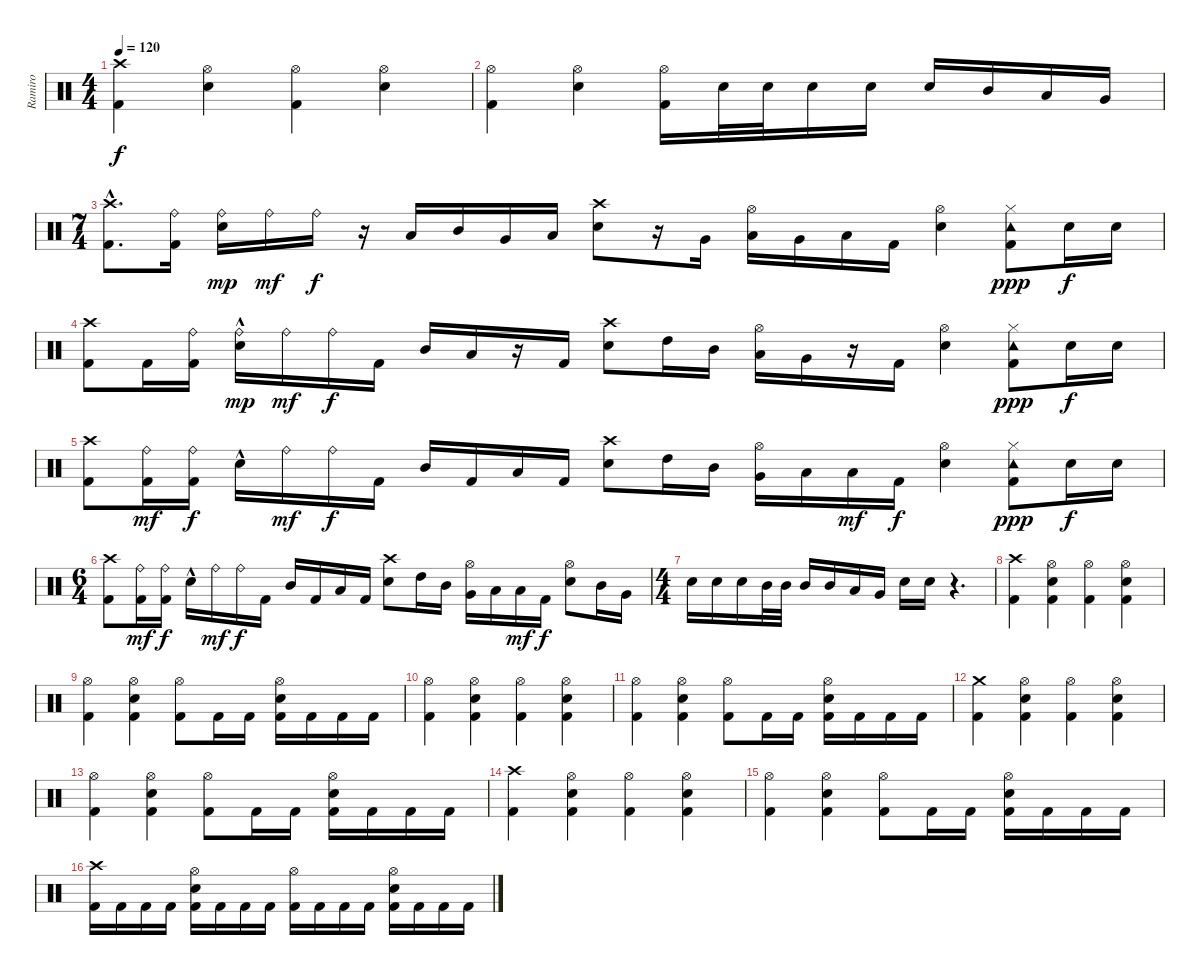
\track ("Ramiro" "Ramiro") {instrument percussion}
\staff {score}
\articulation defaults
\ts (4 4)
\tempo 120
\clef neutral
\ks c
("Kick (hit) 2" "Crash high (hit)").4{dy f} ("Electric Snare (hit)" "Hi-Hat (open)").4 ("Kick (hit) 2" "Hi-Hat (open)").4 ("Electric Snare (hit)" "Hi-Hat (open)").4 |
("Kick (hit) 2" "Hi-Hat (open)").4 ("Electric Snare (hit)" "Hi-Hat (open)").4 ("Kick (hit) 2" "Hi-Hat (open)").16 "Electric Snare (hit)".32 "Electric Snare (hit)".32 "Electric Snare (hit)".16 "Electric Snare (hit)".16 "Electric Snare (hit)".16 "Mid Tom (hit)".16 "Low Tom (hit)".16 "Very Low Tom (hit)".16 |
\ts (7 4)
("Crash high (hit)" "Kick (hit) 2"{hac}).8{d} ("Kick (hit) 2" "Ride (bell)").16 ("Electric Snare (hit)" "Ride (bell)").16{dy mp} "Ride (bell)".16{dy mf} "Ride (bell)".16{dy f} r.16 "Low Tom (hit)".16 "Mid Tom (hit)".16 "Very Low Tom (hit)".16 "Low Floor Tom (hit)".16 ("Crash high (hit)" "Electric Snare (hit)").8 r.16 "Very Low Tom (hit)".16 ("Low Tom (hit)" "Hi-Hat (open)").16 "Very Low Tom (hit)".16 "Low Floor Tom (hit)".16 "Kick (hit) 2".16 ("Electric Snare (hit)" "Hi-Hat (open)").4 ("Tambourine (hit)" "Kick (hit) 2" "Hi-Hat (closed)").8{dy ppp} "Electric Snare (hit)".16{dy f} "Electric Snare (hit)".16 |
("Crash high (hit)" "Kick (hit) 2").8 "Kick (hit) 2".16 ("Kick (hit) 2" "Ride (bell)").16 ("Ride (bell)" "Electric Snare (hit)"{hac}).16{dy mp} "Ride (bell)".16{dy mf} "Ride (bell)".16{dy f} "Kick (hit) 2".16 "Mid Tom (hit)".16 "Low Tom (hit)".16 r.16 "Kick (hit) 2".16 ("Crash high (hit)" "Electric Snare (hit)").8 "High Tom (hit)".16 "Mid Tom (hit)".16 ("Low Tom (hit)" "Hi-Hat (open)").16 "Very Low Tom (hit)".16 r.16 "Kick (hit) 2".16 ("Electric Snare (hit)" "Hi-Hat (open)").4 ("Tambourine (hit)" "Kick (hit) 2" "Hi-Hat (closed)").8{dy ppp} "Electric Snare (hit)".16{dy f} "Electric Snare (hit)".16 |
("Kick (hit) 2" "Crash high (hit)").8 ("Kick (hit) 2" "Ride (bell)").16{dy mf} ("Kick (hit) 2" "Ride (bell)").16{dy f} "Electric Snare (hit)"{hac}.16 "Ride (bell)".16{dy mf} "Ride (bell)".16{dy f} "Kick (hit) 2".16 "Mid Tom (hit)".16 "Kick (hit) 2".16 "Low Tom (hit)".16 "Kick (hit) 2".16 ("Crash high (hit)" "Electric Snare (hit)").8 "High Tom (hit)".16 "Mid Tom (hit)".16 ("Hi-Hat (open)" "Very Low Tom (hit)").16 "Low Floor Tom (hit)".16 "Low Floor Tom (hit)".16{dy mf} "Kick (hit) 2".16{dy f} ("Electric Snare (hit)" "Hi-Hat (open)").4 ("Tambourine (hit)" "Kick (hit) 2" "Hi-Hat (closed)").8{dy ppp} "Electric Snare (hit)".16{dy f} "Electric Snare (hit)".16 |
\ts (6 4)
("Crash high (hit)" "Kick (hit) 2").8 ("Kick (hit) 2" "Ride (bell)").16{dy mf} ("Kick (hit) 2" "Ride (bell)").16{dy f} "Electric Snare (hit)"{hac}.16 "Ride (bell)".16{dy mf} "Ride (bell)".16{dy f} "Kick (hit) 2".16 "Mid Tom (hit)".16 "Kick (hit) 2".16 "Low Tom (hit)".16 "Kick (hit) 2".16 ("Crash high (hit)" "Electric Snare (hit)").8 "High Tom (hit)".16 "Mid Tom (hit)".16 ("Hi-Hat (open)" "Very Low Tom (hit)").16 "Low Floor Tom (hit)".16 "Low Floor Tom (hit)".16{dy mf} "Kick (hit) 2".16{dy f} ("Electric Snare (hit)" "Hi-Hat (open)").8 "Mid Tom (hit)".16 "Very Low Tom (hit)".16 |
\ts (4 4)
"Electric Snare (hit)".16 "Electric Snare (hit)".16 "Electric Snare (hit)".16 "Mid Tom (hit)".32 "Mid Tom (hit)".32 "Mid Tom (hit)".16 "Mid Tom (hit)".16 "Low Tom (hit)".16 "Very Low Tom (hit)".16 "Electric Snare (hit)".16 "Electric Snare (hit)".16 r.4{d} |
("Kick (hit) 2" "Crash high (hit)").4 ("Hi-Hat (open)" "Electric Snare (hit)" "Kick (hit) 2").4 ("Hi-Hat (open)" "Kick (hit) 2").4 ("Hi-Hat (open)" "Electric Snare (hit)" "Kick (hit) 2").4 |
("Hi-Hat (open)" "Kick (hit) 2").4 ("Hi-Hat (open)" "Electric Snare (hit)" "Kick (hit) 2").4 ("Hi-Hat (open)" "Kick (hit) 2").8 "Kick (hit) 2".16 "Kick (hit) 2".16 ("Hi-Hat (open)" "Kick (hit) 2" "Electric Snare (hit)").16 "Kick (hit) 2".16 "Kick (hit) 2".16 "Kick (hit) 2".16 |
("Kick (hit) 2" "Hi-Hat (open)").4 ("Hi-Hat (open)" "Electric Snare (hit)" "Kick (hit) 2").4 ("Hi-Hat (open)" "Kick (hit) 2").4 ("Hi-Hat (open)" "Electric Snare (hit)" "Kick (hit) 2").4 |
("Hi-Hat (open)" "Kick (hit) 2").4 ("Hi-Hat (open)" "Electric Snare (hit)" "Kick (hit) 2").4 ("Hi-Hat (open)" "Kick (hit) 2").8 "Kick (hit) 2".16 "Kick (hit) 2".16 ("Hi-Hat (open)" "Kick (hit) 2" "Electric Snare (hit)").16 "Kick (hit) 2".16 "Kick (hit) 2".16 "Kick (hit) 2".16 |
("Kick (hit) 2" "Crash medium (hit)").4 ("Hi-Hat (open)" "Electric Snare (hit)" "Kick (hit) 2").4 ("Hi-Hat (open)" "Kick (hit) 2").4 ("Hi-Hat (open)" "Electric Snare (hit)" "Kick (hit) 2").4 |
("Hi-Hat (open)" "Kick (hit) 2").4 ("Hi-Hat (open)" "Electric Snare (hit)" "Kick (hit) 2").4 ("Hi-Hat (open)" "Kick (hit) 2").8 "Kick (hit) 2".16 "Kick (hit) 2".16 ("Hi-Hat (open)" "Kick (hit) 2" "Electric Snare (hit)").16 "Kick (hit) 2".16 "Kick (hit) 2".16 "Kick (hit) 2".16 |
("Kick (hit) 2" "Crash high (hit)").4 ("Hi-Hat (open)" "Electric Snare (hit)" "Kick (hit) 2").4 ("Hi-Hat (open)" "Kick (hit) 2").4 ("Hi-Hat (open)" "Electric Snare (hit)" "Kick (hit) 2").4 |
("Hi-Hat (open)" "Kick (hit) 2").4 ("Hi-Hat (open)" "Electric Snare (hit)" "Kick (hit) 2").4 ("Hi-Hat (open)" "Kick (hit) 2").8 "Kick (hit) 2".16 "Kick (hit) 2".16 ("Hi-Hat (open)" "Kick (hit) 2" "Electric Snare (hit)").16 "Kick (hit) 2".16 "Kick (hit) 2".16 "Kick (hit) 2".16 |
("Kick (hit) 2" "Crash high (hit)").16 "Kick (hit) 2".16 "Kick (hit) 2".16 "Kick (hit) 2".16 ("Kick (hit) 2" "Electric Snare (hit)" "Hi-Hat (open)").16 "Kick (hit) 2".16 "Kick (hit) 2".16 "Kick (hit) 2".16 ("Kick (hit) 2" "Hi-Hat (open)").16 "Kick (hit) 2".16 "Kick (hit) 2".16 "Kick (hit) 2".16 ("Kick (hit) 2" "Electric Snare (hit)" "Hi-Hat (open)").16 "Kick (hit) 2".16 "Kick (hit) 2".16 "Kick (hit) 2".16
